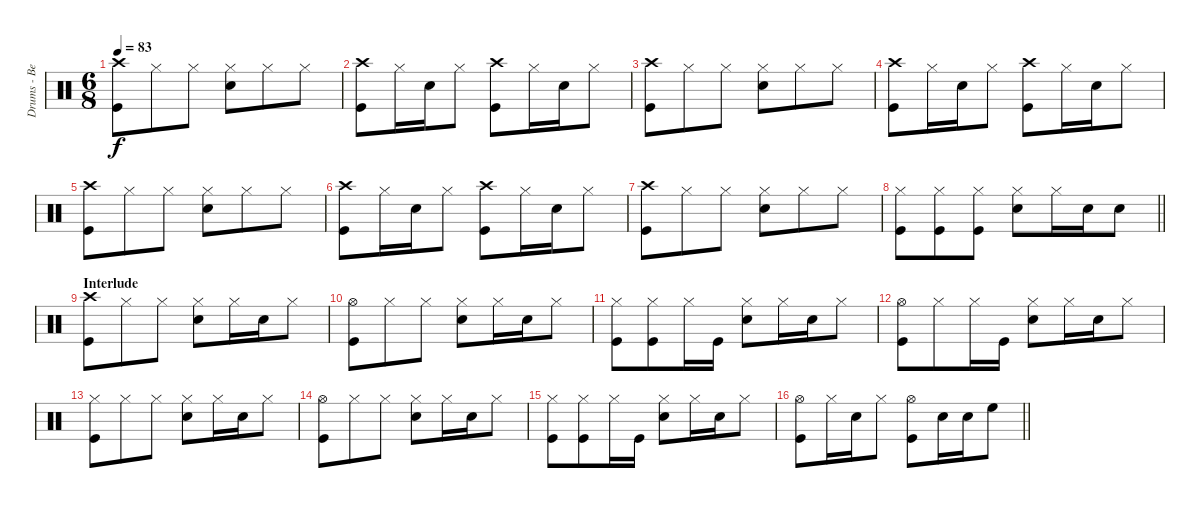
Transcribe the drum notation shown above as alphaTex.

\track ("Drums - Ben Johnston" "Drums - Be") {instrument percussion}
\staff {score}
\articulation defaults
\ts (6 8)
\tempo 83
\clef neutral
\ks aminor
("Crash high (hit)" "Kick (hit)").8{dy f} "Hi-Hat (closed)".8 "Hi-Hat (closed)".8 ("Hi-Hat (closed)" "Snare (hit) 2").8 "Hi-Hat (closed)".8 "Hi-Hat (closed)".8 |
("Crash high (hit)" "Kick (hit)").8 "Hi-Hat (closed)".16 "Snare (hit) 2".16 "Hi-Hat (closed)".8 ("Crash high (hit)" "Kick (hit)").8 "Hi-Hat (closed)".16 "Snare (hit) 2".16 "Hi-Hat (closed)".8 |
("Crash high (hit)" "Kick (hit)").8 "Hi-Hat (closed)".8 "Hi-Hat (closed)".8 ("Hi-Hat (closed)" "Snare (hit) 2").8 "Hi-Hat (closed)".8 "Hi-Hat (closed)".8 |
("Crash high (hit)" "Kick (hit)").8 "Hi-Hat (closed)".16 "Snare (hit) 2".16 "Hi-Hat (closed)".8 ("Crash high (hit)" "Kick (hit)").8 "Hi-Hat (closed)".16 "Snare (hit) 2".16 "Hi-Hat (closed)".8 |
("Crash high (hit)" "Kick (hit)").8 "Hi-Hat (closed)".8 "Hi-Hat (closed)".8 ("Hi-Hat (closed)" "Snare (hit) 2").8 "Hi-Hat (closed)".8 "Hi-Hat (closed)".8 |
("Crash high (hit)" "Kick (hit)").8 "Hi-Hat (closed)".16 "Snare (hit) 2".16 "Hi-Hat (closed)".8 ("Crash high (hit)" "Kick (hit)").8 "Hi-Hat (closed)".16 "Snare (hit) 2".16 "Hi-Hat (closed)".8 |
("Crash high (hit)" "Kick (hit)").8 "Hi-Hat (closed)".8 "Hi-Hat (closed)".8 ("Hi-Hat (closed)" "Snare (hit) 2").8 "Hi-Hat (closed)".8 "Hi-Hat (closed)".8 |
\barLineRight lightlight
("Hi-Hat (closed)" "Kick (hit)").8 ("Hi-Hat (closed)" "Kick (hit)").8 ("Hi-Hat (closed)" "Kick (hit)").8 ("Hi-Hat (closed)" "Snare (hit) 2").8 "Hi-Hat (closed)".16 "Snare (hit) 2".16 "Snare (hit) 2".8 |
\section ("" "Interlude")
("Crash high (hit)" "Kick (hit)").8 "Hi-Hat (closed)".8 "Hi-Hat (closed)".8 ("Hi-Hat (closed)" "Snare (hit) 2").8 "Hi-Hat (closed)".16 "Snare (hit) 2".16 "Hi-Hat (closed)".8 |
("Hi-Hat (open)" "Kick (hit)").8 "Hi-Hat (closed)".8 "Hi-Hat (closed)".8 ("Hi-Hat (closed)" "Snare (hit) 2").8 "Hi-Hat (closed)".16 "Snare (hit) 2".16 "Hi-Hat (closed)".8 |
("Hi-Hat (closed)" "Kick (hit)").8 ("Hi-Hat (closed)" "Kick (hit)").8 "Hi-Hat (closed)".16 "Kick (hit)".16 ("Hi-Hat (closed)" "Snare (hit) 2").8 "Hi-Hat (closed)".16 "Snare (hit) 2".16 "Hi-Hat (closed)".8 |
("Hi-Hat (open)" "Kick (hit)").8 "Hi-Hat (closed)".8 "Hi-Hat (closed)".16 "Kick (hit)".16 ("Hi-Hat (closed)" "Snare (hit) 2").8 "Hi-Hat (closed)".16 "Snare (hit) 2".16 "Hi-Hat (closed)".8 |
("Hi-Hat (closed)" "Kick (hit)").8 "Hi-Hat (closed)".8 "Hi-Hat (closed)".8 ("Hi-Hat (closed)" "Snare (hit) 2").8 "Hi-Hat (closed)".16 "Snare (hit) 2".16 "Hi-Hat (closed)".8 |
("Hi-Hat (open)" "Kick (hit)").8 "Hi-Hat (closed)".8 "Hi-Hat (closed)".8 ("Hi-Hat (closed)" "Snare (hit) 2").8 "Hi-Hat (closed)".16 "Snare (hit) 2".16 "Hi-Hat (closed)".8 |
("Hi-Hat (closed)" "Kick (hit)").8 ("Hi-Hat (closed)" "Kick (hit)").8 "Hi-Hat (closed)".16 "Kick (hit)".16 ("Hi-Hat (closed)" "Snare (hit) 2").8 "Hi-Hat (closed)".16 "Snare (hit) 2".16 "Hi-Hat (closed)".8 |
\barLineRight lightlight
("Hi-Hat (open)" "Kick (hit)").8 "Hi-Hat (closed)".16 "Snare (hit) 2".16 "Hi-Hat (closed)".8 ("Hi-Hat (open)" "Kick (hit)").8 "Snare (hit) 2".16 "Snare (hit) 2".16 "High Floor Tom (hit)".8
